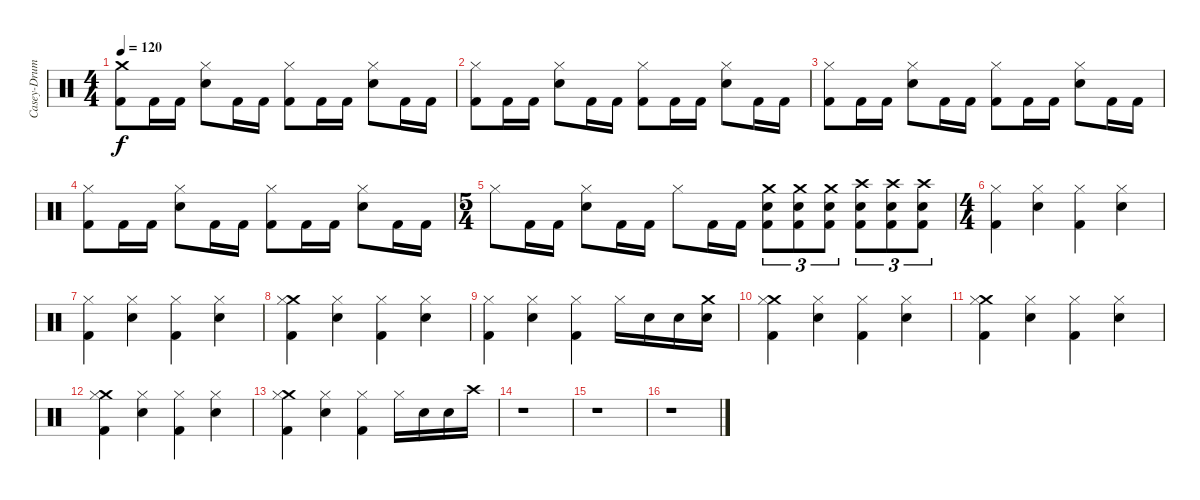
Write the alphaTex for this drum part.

\track ("Casey-Drums" "Casey-Drum") {instrument percussion}
\staff {score}
\articulation defaults
\ts (4 4)
\tempo 120
\clef neutral
\ks c
("Crash medium (hit)" "Kick (hit) 2").8{dy f} "Kick (hit) 2".16 "Kick (hit) 2".16 ("Electric Snare (hit)" "Hi-Hat (closed)").8 "Kick (hit) 2".16 "Kick (hit) 2".16 ("Hi-Hat (closed)" "Kick (hit) 2").8 "Kick (hit) 2".16 "Kick (hit) 2".16 ("Electric Snare (hit)" "Hi-Hat (closed)").8 "Kick (hit) 2".16 "Kick (hit) 2".16 |
("Hi-Hat (closed)" "Kick (hit) 2").8 "Kick (hit) 2".16 "Kick (hit) 2".16 ("Electric Snare (hit)" "Hi-Hat (closed)").8 "Kick (hit) 2".16 "Kick (hit) 2".16 ("Hi-Hat (closed)" "Kick (hit) 2").8 "Kick (hit) 2".16 "Kick (hit) 2".16 ("Electric Snare (hit)" "Hi-Hat (closed)").8 "Kick (hit) 2".16 "Kick (hit) 2".16 |
("Hi-Hat (closed)" "Kick (hit) 2").8 "Kick (hit) 2".16 "Kick (hit) 2".16 ("Electric Snare (hit)" "Hi-Hat (closed)").8 "Kick (hit) 2".16 "Kick (hit) 2".16 ("Hi-Hat (closed)" "Kick (hit) 2").8 "Kick (hit) 2".16 "Kick (hit) 2".16 ("Electric Snare (hit)" "Hi-Hat (closed)").8 "Kick (hit) 2".16 "Kick (hit) 2".16 |
("Hi-Hat (closed)" "Kick (hit) 2").8 "Kick (hit) 2".16 "Kick (hit) 2".16 ("Electric Snare (hit)" "Hi-Hat (closed)").8 "Kick (hit) 2".16 "Kick (hit) 2".16 ("Hi-Hat (closed)" "Kick (hit) 2").8 "Kick (hit) 2".16 "Kick (hit) 2".16 ("Electric Snare (hit)" "Hi-Hat (closed)").8 "Kick (hit) 2".16 "Kick (hit) 2".16 |
\ts (5 4)
"Hi-Hat (closed)".8 "Kick (hit) 2".16 "Kick (hit) 2".16 ("Hi-Hat (closed)" "Electric Snare (hit)").8 "Kick (hit) 2".16 "Kick (hit) 2".16 "Hi-Hat (closed)".8 "Kick (hit) 2".16 "Kick (hit) 2".16 ("Crash medium (hit)" "Electric Snare (hit)" "Kick (hit) 2").8{tu (3 2)} ("Crash medium (hit)" "Electric Snare (hit)" "Kick (hit) 2").8{tu (3 2)} ("Crash medium (hit)" "Electric Snare (hit)" "Kick (hit) 2").8{tu (3 2)} ("Crash high (hit)" "Electric Snare (hit)" "Kick (hit) 2").8{tu (3 2)} ("Crash high (hit)" "Electric Snare (hit)" "Kick (hit) 2").8{tu (3 2)} ("Crash high (hit)" "Electric Snare (hit)" "Kick (hit) 2").8{tu (3 2)} |
\ts (4 4)
("Hi-Hat (closed)" "Kick (hit) 2").4 ("Hi-Hat (closed)" "Electric Snare (hit)").4 ("Hi-Hat (closed)" "Kick (hit) 2").4 ("Hi-Hat (closed)" "Electric Snare (hit)").4 |
("Hi-Hat (closed)" "Kick (hit) 2").4 ("Hi-Hat (closed)" "Electric Snare (hit)").4 ("Hi-Hat (closed)" "Kick (hit) 2").4 ("Hi-Hat (closed)" "Electric Snare (hit)").4 |
("Crash medium (hit)" "Hi-Hat (closed)" "Kick (hit) 2").4 ("Hi-Hat (closed)" "Electric Snare (hit)").4 ("Hi-Hat (closed)" "Kick (hit) 2").4 ("Hi-Hat (closed)" "Electric Snare (hit)").4 |
("Hi-Hat (closed)" "Kick (hit) 2").4 ("Hi-Hat (closed)" "Electric Snare (hit)").4 ("Hi-Hat (closed)" "Kick (hit) 2").4 "Hi-Hat (closed)".16 "Electric Snare (hit)".16 "Electric Snare (hit)".16 ("Crash medium (hit)" "Electric Snare (hit)").16 |
("Crash medium (hit)" "Hi-Hat (closed)" "Kick (hit) 2").4 ("Hi-Hat (closed)" "Electric Snare (hit)").4 ("Hi-Hat (closed)" "Kick (hit) 2").4 ("Hi-Hat (closed)" "Electric Snare (hit)").4 |
("Crash medium (hit)" "Hi-Hat (closed)" "Kick (hit) 2").4 ("Hi-Hat (closed)" "Electric Snare (hit)").4 ("Hi-Hat (closed)" "Kick (hit) 2").4 ("Hi-Hat (closed)" "Electric Snare (hit)").4 |
("Crash medium (hit)" "Hi-Hat (closed)" "Kick (hit) 2").4 ("Hi-Hat (closed)" "Electric Snare (hit)").4 ("Hi-Hat (closed)" "Kick (hit) 2").4 ("Hi-Hat (closed)" "Electric Snare (hit)").4 |
("Crash medium (hit)" "Hi-Hat (closed)" "Kick (hit) 2").4 ("Hi-Hat (closed)" "Electric Snare (hit)").4 ("Hi-Hat (closed)" "Kick (hit) 2").4 "Hi-Hat (closed)".16 "Electric Snare (hit)".16 "Electric Snare (hit)".16 "Crash high (hit)".16 |
r.1 |
r.1 |
r.1
